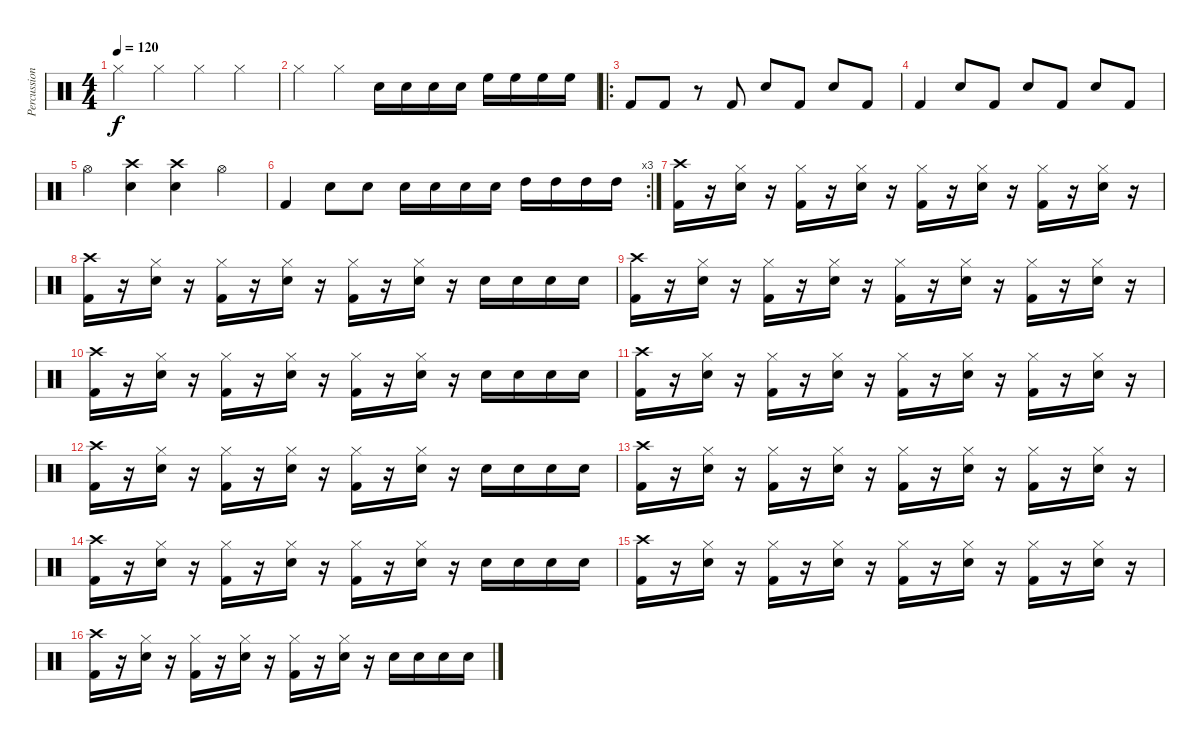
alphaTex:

\track ("Percussions" "Percussion") {instrument percussion}
\staff {score}
\articulation defaults
\ts (4 4)
\tempo 120
\clef neutral
\ks c "Hi-Hat (closed)".4{dy f} "Hi-Hat (closed)".4 "Hi-Hat (closed)".4 "Hi-Hat (closed)".4
|
"Hi-Hat (closed)".4 "Hi-Hat (closed)".4 "Electric Snare (hit)".16 "Electric Snare (hit)".16 "Electric Snare (hit)".16 "Electric Snare (hit)".16 "High Floor Tom (hit)".16 "High Floor Tom (hit)".16 "High Floor Tom (hit)".16 "High Floor Tom (hit)".16 |
\ro "Kick (hit) 2".8 "Kick (hit) 2".8
r.8 "Kick (hit) 2".8 "Electric Snare (hit)".8 "Kick (hit) 2".8 "Electric Snare (hit)".8 "Kick (hit) 2".8 |
"Kick (hit) 2".4 "Electric Snare (hit)".8 "Kick (hit) 2".8 "Electric Snare (hit)".8 "Kick (hit) 2".8 "Electric Snare (hit)".8 "Kick (hit) 2".8 |
"Hi-Hat (open)".4 ("Crash high (hit)" "Electric Snare (hit)").4 ("Crash high (hit)" "Electric Snare (hit)").4 "Hi-Hat (open)".4 |
\rc 3 "Kick (hit) 2".4 "Electric Snare (hit)".8 "Electric Snare (hit)".8 "Electric Snare (hit)".16 "Electric Snare (hit)".16 "Electric Snare (hit)".16 "Electric Snare (hit)".16 "High Tom (hit)".16 "High Tom (hit)".16 "High Tom (hit)".16 "High Tom (hit)".16
|
("Crash high (hit)" "Kick (hit) 2").16 r.16 ("Hi-Hat (closed)" "Electric Snare (hit)").16 r.16 ("Hi-Hat (closed)" "Kick (hit) 2").16 r.16 ("Hi-Hat (closed)" "Electric Snare (hit)").16 r.16 ("Hi-Hat (closed)" "Kick (hit) 2").16 r.16 ("Hi-Hat (closed)" "Electric Snare (hit)").16 r.16 ("Hi-Hat (closed)" "Kick (hit) 2").16 r.16 ("Hi-Hat (closed)" "Electric Snare (hit)").16 r.16 |
("Crash high (hit)" "Kick (hit) 2").16 r.16 ("Hi-Hat (closed)" "Electric Snare (hit)").16 r.16 ("Hi-Hat (closed)" "Kick (hit) 2").16 r.16 ("Hi-Hat (closed)" "Electric Snare (hit)").16 r.16 ("Hi-Hat (closed)" "Kick (hit) 2").16 r.16 ("Hi-Hat (closed)" "Electric Snare (hit)").16 r.16 "Electric Snare (hit)".16 "Electric Snare (hit)".16 "Electric Snare (hit)".16 "Electric Snare (hit)".16 |
("Crash high (hit)" "Kick (hit) 2").16 r.16 ("Hi-Hat (closed)" "Electric Snare (hit)").16 r.16 ("Hi-Hat (closed)" "Kick (hit) 2").16 r.16 ("Hi-Hat (closed)" "Electric Snare (hit)").16 r.16 ("Hi-Hat (closed)" "Kick (hit) 2").16 r.16 ("Hi-Hat (closed)" "Electric Snare (hit)").16 r.16 ("Hi-Hat (closed)" "Kick (hit) 2").16 r.16 ("Hi-Hat (closed)" "Electric Snare (hit)").16 r.16 |
("Crash high (hit)" "Kick (hit) 2").16 r.16 ("Hi-Hat (closed)" "Electric Snare (hit)").16 r.16 ("Hi-Hat (closed)" "Kick (hit) 2").16 r.16 ("Hi-Hat (closed)" "Electric Snare (hit)").16 r.16 ("Hi-Hat (closed)" "Kick (hit) 2").16 r.16 ("Hi-Hat (closed)" "Electric Snare (hit)").16 r.16 "Electric Snare (hit)".16 "Electric Snare (hit)".16 "Electric Snare (hit)".16 "Electric Snare (hit)".16 |
("Crash high (hit)" "Kick (hit) 2").16 r.16 ("Hi-Hat (closed)" "Electric Snare (hit)").16 r.16 ("Hi-Hat (closed)" "Kick (hit) 2").16 r.16 ("Hi-Hat (closed)" "Electric Snare (hit)").16 r.16 ("Hi-Hat (closed)" "Kick (hit) 2").16 r.16 ("Hi-Hat (closed)" "Electric Snare (hit)").16 r.16 ("Hi-Hat (closed)" "Kick (hit) 2").16 r.16 ("Hi-Hat (closed)" "Electric Snare (hit)").16 r.16 |
("Crash high (hit)" "Kick (hit) 2").16 r.16 ("Hi-Hat (closed)" "Electric Snare (hit)").16 r.16 ("Hi-Hat (closed)" "Kick (hit) 2").16 r.16 ("Hi-Hat (closed)" "Electric Snare (hit)").16 r.16 ("Hi-Hat (closed)" "Kick (hit) 2").16 r.16 ("Hi-Hat (closed)" "Electric Snare (hit)").16 r.16 "Electric Snare (hit)".16 "Electric Snare (hit)".16 "Electric Snare (hit)".16 "Electric Snare (hit)".16 |
("Crash high (hit)" "Kick (hit) 2").16 r.16 ("Hi-Hat (closed)" "Electric Snare (hit)").16 r.16 ("Hi-Hat (closed)" "Kick (hit) 2").16 r.16 ("Hi-Hat (closed)" "Electric Snare (hit)").16 r.16 ("Hi-Hat (closed)" "Kick (hit) 2").16 r.16 ("Hi-Hat (closed)" "Electric Snare (hit)").16 r.16 ("Hi-Hat (closed)" "Kick (hit) 2").16 r.16 ("Hi-Hat (closed)" "Electric Snare (hit)").16 r.16 |
("Crash high (hit)" "Kick (hit) 2").16 r.16 ("Hi-Hat (closed)" "Electric Snare (hit)").16 r.16 ("Hi-Hat (closed)" "Kick (hit) 2").16 r.16 ("Hi-Hat (closed)" "Electric Snare (hit)").16 r.16 ("Hi-Hat (closed)" "Kick (hit) 2").16 r.16 ("Hi-Hat (closed)" "Electric Snare (hit)").16 r.16 "Electric Snare (hit)".16 "Electric Snare (hit)".16 "Electric Snare (hit)".16 "Electric Snare (hit)".16 |
("Crash high (hit)" "Kick (hit) 2").16 r.16 ("Hi-Hat (closed)" "Electric Snare (hit)").16 r.16 ("Hi-Hat (closed)" "Kick (hit) 2").16 r.16 ("Hi-Hat (closed)" "Electric Snare (hit)").16 r.16 ("Hi-Hat (closed)" "Kick (hit) 2").16 r.16 ("Hi-Hat (closed)" "Electric Snare (hit)").16 r.16 ("Hi-Hat (closed)" "Kick (hit) 2").16 r.16 ("Hi-Hat (closed)" "Electric Snare (hit)").16 r.16 |
("Crash high (hit)" "Kick (hit) 2").16 r.16 ("Hi-Hat (closed)" "Electric Snare (hit)").16 r.16 ("Hi-Hat (closed)" "Kick (hit) 2").16 r.16 ("Hi-Hat (closed)" "Electric Snare (hit)").16 r.16 ("Hi-Hat (closed)" "Kick (hit) 2").16 r.16 ("Hi-Hat (closed)" "Electric Snare (hit)").16 r.16 "Electric Snare (hit)".16 "Electric Snare (hit)".16 "Electric Snare (hit)".16 "Electric Snare (hit)".16
